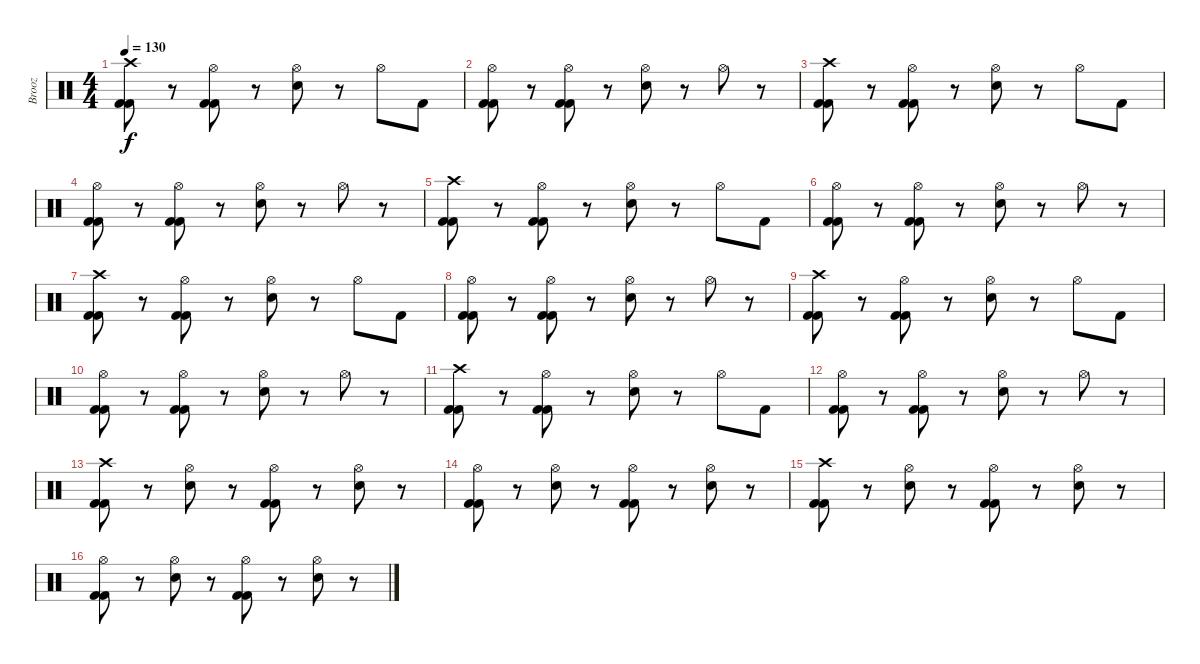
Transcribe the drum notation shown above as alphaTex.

\track ("Brooz" "Brooz") {instrument percussion}
\staff {score}
\articulation defaults
\ts (4 4)
\tempo 130
\clef neutral
\ks c
("Kick (hit) 2" "Crash high (hit)" "Kick (hit) 2").8{dy f} r.8 ("Kick (hit) 2" "Hi-Hat (open)" "Kick (hit) 2").8 r.8 ("Hi-Hat (open)" "Electric Snare (hit)").8 r.8 "Hi-Hat (open)".8 "Kick (hit) 2".8 |
("Kick (hit) 2" "Hi-Hat (open)" "Kick (hit) 2").8 r.8 ("Kick (hit) 2" "Hi-Hat (open)" "Kick (hit) 2").8 r.8 ("Hi-Hat (open)" "Electric Snare (hit)").8 r.8 "Hi-Hat (open)".8 r.8 |
("Kick (hit) 2" "Crash high (hit)" "Kick (hit) 2").8 r.8 ("Kick (hit) 2" "Hi-Hat (open)" "Kick (hit) 2").8 r.8 ("Hi-Hat (open)" "Electric Snare (hit)").8 r.8 "Hi-Hat (open)".8 "Kick (hit) 2".8 |
("Kick (hit) 2" "Hi-Hat (open)" "Kick (hit) 2").8 r.8 ("Kick (hit) 2" "Hi-Hat (open)" "Kick (hit) 2").8 r.8 ("Hi-Hat (open)" "Electric Snare (hit)").8 r.8 "Hi-Hat (open)".8 r.8 |
("Kick (hit) 2" "Crash high (hit)" "Kick (hit) 2").8 r.8 ("Kick (hit) 2" "Hi-Hat (open)" "Kick (hit) 2").8 r.8 ("Hi-Hat (open)" "Electric Snare (hit)").8 r.8 "Hi-Hat (open)".8 "Kick (hit) 2".8 |
("Kick (hit) 2" "Hi-Hat (open)" "Kick (hit) 2").8 r.8 ("Kick (hit) 2" "Hi-Hat (open)" "Kick (hit) 2").8 r.8 ("Hi-Hat (open)" "Electric Snare (hit)").8 r.8 "Hi-Hat (open)".8 r.8 |
("Kick (hit) 2" "Crash high (hit)" "Kick (hit) 2").8 r.8 ("Kick (hit) 2" "Hi-Hat (open)" "Kick (hit) 2").8 r.8 ("Hi-Hat (open)" "Electric Snare (hit)").8 r.8 "Hi-Hat (open)".8 "Kick (hit) 2".8 |
("Kick (hit) 2" "Hi-Hat (open)" "Kick (hit) 2").8 r.8 ("Kick (hit) 2" "Hi-Hat (open)" "Kick (hit) 2").8 r.8 ("Hi-Hat (open)" "Electric Snare (hit)").8 r.8 "Hi-Hat (open)".8 r.8 |
("Kick (hit) 2" "Crash high (hit)" "Kick (hit) 2").8 r.8 ("Kick (hit) 2" "Hi-Hat (open)" "Kick (hit) 2").8 r.8 ("Hi-Hat (open)" "Electric Snare (hit)").8 r.8 "Hi-Hat (open)".8 "Kick (hit) 2".8 |
("Kick (hit) 2" "Hi-Hat (open)" "Kick (hit) 2").8 r.8 ("Kick (hit) 2" "Hi-Hat (open)" "Kick (hit) 2").8 r.8 ("Hi-Hat (open)" "Electric Snare (hit)").8 r.8 "Hi-Hat (open)".8 r.8 |
("Kick (hit) 2" "Crash high (hit)" "Kick (hit) 2").8 r.8 ("Kick (hit) 2" "Hi-Hat (open)" "Kick (hit) 2").8 r.8 ("Hi-Hat (open)" "Electric Snare (hit)").8 r.8 "Hi-Hat (open)".8 "Kick (hit) 2".8 |
("Kick (hit) 2" "Hi-Hat (open)" "Kick (hit) 2").8 r.8 ("Kick (hit) 2" "Hi-Hat (open)" "Kick (hit) 2").8 r.8 ("Hi-Hat (open)" "Electric Snare (hit)").8 r.8 "Hi-Hat (open)".8 r.8 |
("Kick (hit) 2" "Crash high (hit)" "Kick (hit) 2").8 r.8 ("Hi-Hat (open)" "Electric Snare (hit)").8 r.8 ("Kick (hit) 2" "Hi-Hat (open)" "Kick (hit) 2").8 r.8 ("Hi-Hat (open)" "Electric Snare (hit)").8 r.8 |
("Kick (hit) 2" "Hi-Hat (open)" "Kick (hit) 2").8 r.8 ("Hi-Hat (open)" "Electric Snare (hit)").8 r.8 ("Kick (hit) 2" "Hi-Hat (open)" "Kick (hit) 2").8 r.8 ("Hi-Hat (open)" "Electric Snare (hit)").8 r.8 |
("Kick (hit) 2" "Crash high (hit)" "Kick (hit) 2").8 r.8 ("Hi-Hat (open)" "Electric Snare (hit)").8 r.8 ("Kick (hit) 2" "Hi-Hat (open)" "Kick (hit) 2").8 r.8 ("Hi-Hat (open)" "Electric Snare (hit)").8 r.8 |
("Kick (hit) 2" "Hi-Hat (open)" "Kick (hit) 2").8 r.8 ("Hi-Hat (open)" "Electric Snare (hit)").8 r.8 ("Kick (hit) 2" "Hi-Hat (open)" "Kick (hit) 2").8 r.8 ("Hi-Hat (open)" "Electric Snare (hit)").8 r.8
